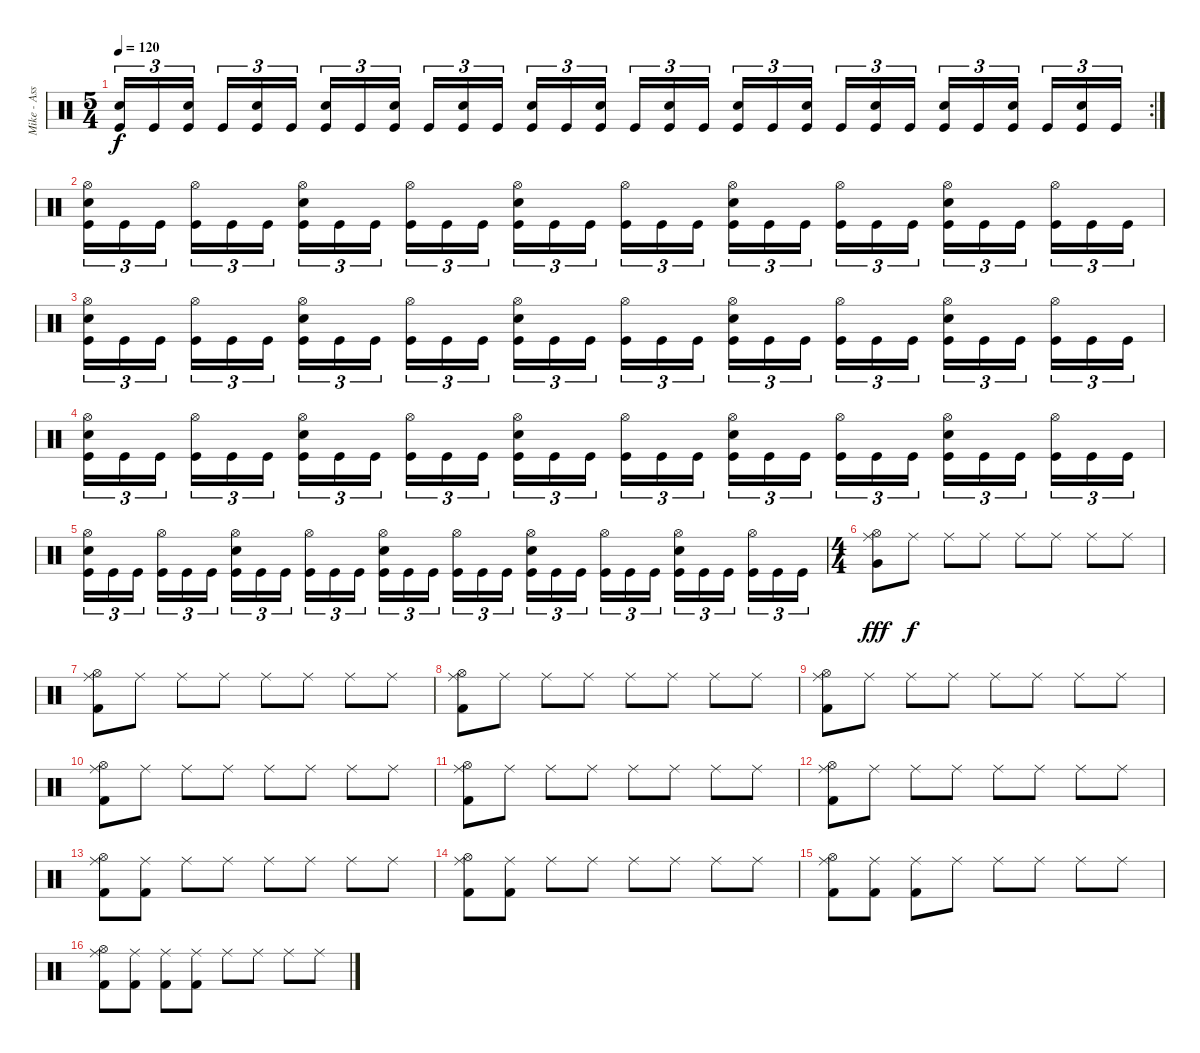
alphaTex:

\track ("Mike - Assualt And Battery" "Mike - Ass") {instrument percussion}
\staff {score}
\articulation defaults
\rc 2
\ts (5 4)
\tempo 120
\clef neutral
\ks c
("Electric Snare (hit)" "Kick (hit)").16{tu (3 2) dy f} "Kick (hit)".16{tu (3 2)} ("Electric Snare (hit)" "Kick (hit)").16{tu (3 2)} "Kick (hit)".16{tu (3 2)} ("Electric Snare (hit)" "Kick (hit)").16{tu (3 2)} "Kick (hit)".16{tu (3 2)} ("Electric Snare (hit)" "Kick (hit)").16{tu (3 2)} "Kick (hit)".16{tu (3 2)} ("Electric Snare (hit)" "Kick (hit)").16{tu (3 2)} "Kick (hit)".16{tu (3 2)} ("Electric Snare (hit)" "Kick (hit)").16{tu (3 2)} "Kick (hit)".16{tu (3 2)} ("Electric Snare (hit)" "Kick (hit)").16{tu (3 2)} "Kick (hit)".16{tu (3 2)} ("Electric Snare (hit)" "Kick (hit)").16{tu (3 2)} "Kick (hit)".16{tu (3 2)} ("Electric Snare (hit)" "Kick (hit)").16{tu (3 2)} "Kick (hit)".16{tu (3 2)} ("Electric Snare (hit)" "Kick (hit)").16{tu (3 2)} "Kick (hit)".16{tu (3 2)} ("Electric Snare (hit)" "Kick (hit)").16{tu (3 2)} "Kick (hit)".16{tu (3 2)} ("Electric Snare (hit)" "Kick (hit)").16{tu (3 2)} "Kick (hit)".16{tu (3 2)} ("Electric Snare (hit)" "Kick (hit)").16{tu (3 2)} "Kick (hit)".16{tu (3 2)} ("Electric Snare (hit)" "Kick (hit)").16{tu (3 2)} "Kick (hit)".16{tu (3 2)} ("Electric Snare (hit)" "Kick (hit)").16{tu (3 2)} "Kick (hit)".16{tu (3 2)} |
("Electric Snare (hit)" "Hi-Hat (open)" "Kick (hit)").16{tu (3 2)} "Kick (hit)".16{tu (3 2)} "Kick (hit)".16{tu (3 2)} ("Hi-Hat (open)" "Kick (hit)").16{tu (3 2)} "Kick (hit)".16{tu (3 2)} "Kick (hit)".16{tu (3 2)} ("Electric Snare (hit)" "Hi-Hat (open)" "Kick (hit)").16{tu (3 2)} "Kick (hit)".16{tu (3 2)} "Kick (hit)".16{tu (3 2)} ("Hi-Hat (open)" "Kick (hit)").16{tu (3 2)} "Kick (hit)".16{tu (3 2)} "Kick (hit)".16{tu (3 2)} ("Electric Snare (hit)" "Hi-Hat (open)" "Kick (hit)").16{tu (3 2)} "Kick (hit)".16{tu (3 2)} "Kick (hit)".16{tu (3 2)} ("Hi-Hat (open)" "Kick (hit)").16{tu (3 2)} "Kick (hit)".16{tu (3 2)} "Kick (hit)".16{tu (3 2)} ("Electric Snare (hit)" "Hi-Hat (open)" "Kick (hit)").16{tu (3 2)} "Kick (hit)".16{tu (3 2)} "Kick (hit)".16{tu (3 2)} ("Hi-Hat (open)" "Kick (hit)").16{tu (3 2)} "Kick (hit)".16{tu (3 2)} "Kick (hit)".16{tu (3 2)} ("Electric Snare (hit)" "Hi-Hat (open)" "Kick (hit)").16{tu (3 2)} "Kick (hit)".16{tu (3 2)} "Kick (hit)".16{tu (3 2)} ("Hi-Hat (open)" "Kick (hit)").16{tu (3 2)} "Kick (hit)".16{tu (3 2)} "Kick (hit)".16{tu (3 2)} |
("Electric Snare (hit)" "Hi-Hat (open)" "Kick (hit)").16{tu (3 2)} "Kick (hit)".16{tu (3 2)} "Kick (hit)".16{tu (3 2)} ("Hi-Hat (open)" "Kick (hit)").16{tu (3 2)} "Kick (hit)".16{tu (3 2)} "Kick (hit)".16{tu (3 2)} ("Electric Snare (hit)" "Hi-Hat (open)" "Kick (hit)").16{tu (3 2)} "Kick (hit)".16{tu (3 2)} "Kick (hit)".16{tu (3 2)} ("Hi-Hat (open)" "Kick (hit)").16{tu (3 2)} "Kick (hit)".16{tu (3 2)} "Kick (hit)".16{tu (3 2)} ("Electric Snare (hit)" "Hi-Hat (open)" "Kick (hit)").16{tu (3 2)} "Kick (hit)".16{tu (3 2)} "Kick (hit)".16{tu (3 2)} ("Hi-Hat (open)" "Kick (hit)").16{tu (3 2)} "Kick (hit)".16{tu (3 2)} "Kick (hit)".16{tu (3 2)} ("Electric Snare (hit)" "Hi-Hat (open)" "Kick (hit)").16{tu (3 2)} "Kick (hit)".16{tu (3 2)} "Kick (hit)".16{tu (3 2)} ("Hi-Hat (open)" "Kick (hit)").16{tu (3 2)} "Kick (hit)".16{tu (3 2)} "Kick (hit)".16{tu (3 2)} ("Electric Snare (hit)" "Hi-Hat (open)" "Kick (hit)").16{tu (3 2)} "Kick (hit)".16{tu (3 2)} "Kick (hit)".16{tu (3 2)} ("Hi-Hat (open)" "Kick (hit)").16{tu (3 2)} "Kick (hit)".16{tu (3 2)} "Kick (hit)".16{tu (3 2)} |
("Electric Snare (hit)" "Hi-Hat (open)" "Kick (hit)").16{tu (3 2)} "Kick (hit)".16{tu (3 2)} "Kick (hit)".16{tu (3 2)} ("Hi-Hat (open)" "Kick (hit)").16{tu (3 2)} "Kick (hit)".16{tu (3 2)} "Kick (hit)".16{tu (3 2)} ("Electric Snare (hit)" "Hi-Hat (open)" "Kick (hit)").16{tu (3 2)} "Kick (hit)".16{tu (3 2)} "Kick (hit)".16{tu (3 2)} ("Hi-Hat (open)" "Kick (hit)").16{tu (3 2)} "Kick (hit)".16{tu (3 2)} "Kick (hit)".16{tu (3 2)} ("Electric Snare (hit)" "Hi-Hat (open)" "Kick (hit)").16{tu (3 2)} "Kick (hit)".16{tu (3 2)} "Kick (hit)".16{tu (3 2)} ("Hi-Hat (open)" "Kick (hit)").16{tu (3 2)} "Kick (hit)".16{tu (3 2)} "Kick (hit)".16{tu (3 2)} ("Electric Snare (hit)" "Hi-Hat (open)" "Kick (hit)").16{tu (3 2)} "Kick (hit)".16{tu (3 2)} "Kick (hit)".16{tu (3 2)} ("Hi-Hat (open)" "Kick (hit)").16{tu (3 2)} "Kick (hit)".16{tu (3 2)} "Kick (hit)".16{tu (3 2)} ("Electric Snare (hit)" "Hi-Hat (open)" "Kick (hit)").16{tu (3 2)} "Kick (hit)".16{tu (3 2)} "Kick (hit)".16{tu (3 2)} ("Hi-Hat (open)" "Kick (hit)").16{tu (3 2)} "Kick (hit)".16{tu (3 2)} "Kick (hit)".16{tu (3 2)} |
("Electric Snare (hit)" "Hi-Hat (open)" "Kick (hit)").16{tu (3 2)} "Kick (hit)".16{tu (3 2)} "Kick (hit)".16{tu (3 2)} ("Hi-Hat (open)" "Kick (hit)").16{tu (3 2)} "Kick (hit)".16{tu (3 2)} "Kick (hit)".16{tu (3 2)} ("Electric Snare (hit)" "Hi-Hat (open)" "Kick (hit)").16{tu (3 2)} "Kick (hit)".16{tu (3 2)} "Kick (hit)".16{tu (3 2)} ("Hi-Hat (open)" "Kick (hit)").16{tu (3 2)} "Kick (hit)".16{tu (3 2)} "Kick (hit)".16{tu (3 2)} ("Electric Snare (hit)" "Hi-Hat (open)" "Kick (hit)").16{tu (3 2)} "Kick (hit)".16{tu (3 2)} "Kick (hit)".16{tu (3 2)} ("Hi-Hat (open)" "Kick (hit)").16{tu (3 2)} "Kick (hit)".16{tu (3 2)} "Kick (hit)".16{tu (3 2)} ("Electric Snare (hit)" "Hi-Hat (open)" "Kick (hit)").16{tu (3 2)} "Kick (hit)".16{tu (3 2)} "Kick (hit)".16{tu (3 2)} ("Hi-Hat (open)" "Kick (hit)").16{tu (3 2)} "Kick (hit)".16{tu (3 2)} "Kick (hit)".16{tu (3 2)} ("Electric Snare (hit)" "Hi-Hat (open)" "Kick (hit)").16{tu (3 2)} "Kick (hit)".16{tu (3 2)} "Kick (hit)".16{tu (3 2)} ("Hi-Hat (open)" "Kick (hit)").16{tu (3 2)} "Kick (hit)".16{tu (3 2)} "Kick (hit)".16{tu (3 2)} |
\ts (4 4)
("Very Low Tom (hit)" "Ride (middle)" "Hi-Hat (open)").8{dy fff} "Ride (middle)".8{dy f} "Ride (middle)".8 "Ride (middle)".8 "Ride (middle)".8 "Ride (middle)".8 "Ride (middle)".8 "Ride (middle)".8 |
("Ride (middle)" "Hi-Hat (open)" "Kick (hit) 2").8 "Ride (middle)".8 "Ride (middle)".8 "Ride (middle)".8 "Ride (middle)".8 "Ride (middle)".8 "Ride (middle)".8 "Ride (middle)".8 |
("Ride (middle)" "Hi-Hat (open)" "Kick (hit) 2").8 "Ride (middle)".8 "Ride (middle)".8 "Ride (middle)".8 "Ride (middle)".8 "Ride (middle)".8 "Ride (middle)".8 "Ride (middle)".8 |
("Ride (middle)" "Hi-Hat (open)" "Kick (hit) 2").8 "Ride (middle)".8 "Ride (middle)".8 "Ride (middle)".8 "Ride (middle)".8 "Ride (middle)".8 "Ride (middle)".8 "Ride (middle)".8 |
("Ride (middle)" "Hi-Hat (open)" "Kick (hit) 2").8 "Ride (middle)".8 "Ride (middle)".8 "Ride (middle)".8 "Ride (middle)".8 "Ride (middle)".8 "Ride (middle)".8 "Ride (middle)".8 |
("Ride (middle)" "Hi-Hat (open)" "Kick (hit) 2").8 "Ride (middle)".8 "Ride (middle)".8 "Ride (middle)".8 "Ride (middle)".8 "Ride (middle)".8 "Ride (middle)".8 "Ride (middle)".8 |
("Ride (middle)" "Hi-Hat (open)" "Kick (hit) 2").8 "Ride (middle)".8 "Ride (middle)".8 "Ride (middle)".8 "Ride (middle)".8 "Ride (middle)".8 "Ride (middle)".8 "Ride (middle)".8 |
("Ride (middle)" "Hi-Hat (open)" "Kick (hit) 2").8 ("Ride (middle)" "Kick (hit) 2").8 "Ride (middle)".8 "Ride (middle)".8 "Ride (middle)".8 "Ride (middle)".8 "Ride (middle)".8 "Ride (middle)".8 |
("Ride (middle)" "Hi-Hat (open)" "Kick (hit) 2").8 ("Ride (middle)" "Kick (hit) 2").8 "Ride (middle)".8 "Ride (middle)".8 "Ride (middle)".8 "Ride (middle)".8 "Ride (middle)".8 "Ride (middle)".8 |
("Ride (middle)" "Hi-Hat (open)" "Kick (hit) 2").8 ("Ride (middle)" "Kick (hit) 2").8 ("Ride (middle)" "Kick (hit) 2").8 "Ride (middle)".8 "Ride (middle)".8 "Ride (middle)".8 "Ride (middle)".8 "Ride (middle)".8 |
("Ride (middle)" "Hi-Hat (open)" "Kick (hit) 2").8 ("Ride (middle)" "Kick (hit) 2").8 ("Ride (middle)" "Kick (hit) 2").8 ("Ride (middle)" "Kick (hit) 2").8 "Ride (middle)".8 "Ride (middle)".8 "Ride (middle)".8 "Ride (middle)".8
